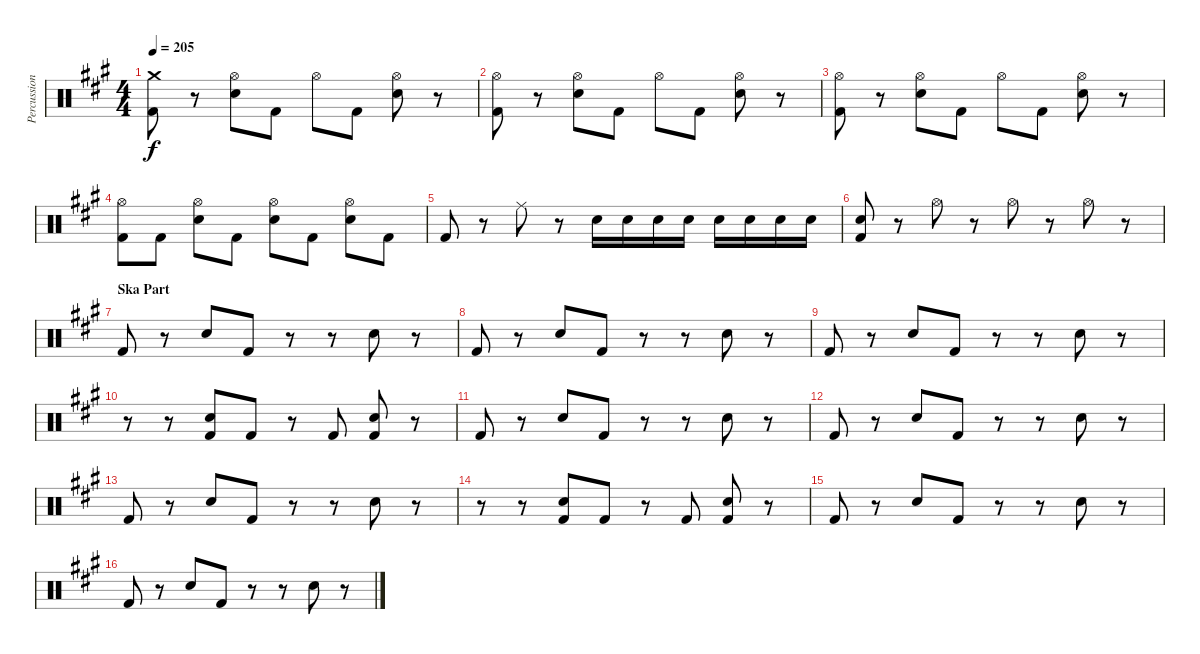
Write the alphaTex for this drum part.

\track ("Percussion" "Percussion") {instrument percussion}
\staff {score}
\articulation defaults
\ts (4 4)
\tempo 205
\clef neutral
\ks a
("Crash medium (hit)" "Kick (hit) 2").8{dy f} r.8 ("Hi-Hat (open)" "Snare (hit) 2").8 "Kick (hit) 2".8 "Hi-Hat (open)".8 "Kick (hit) 2".8 ("Hi-Hat (open)" "Snare (hit) 2").8 r.8 |
("Hi-Hat (open)" "Kick (hit) 2").8 r.8 ("Hi-Hat (open)" "Snare (hit) 2").8 "Kick (hit) 2".8 "Hi-Hat (open)".8 "Kick (hit) 2".8 ("Hi-Hat (open)" "Snare (hit) 2").8 r.8 |
("Hi-Hat (open)" "Kick (hit) 2").8 r.8 ("Hi-Hat (open)" "Snare (hit) 2").8 "Kick (hit) 2".8 "Hi-Hat (open)".8 "Kick (hit) 2".8 ("Hi-Hat (open)" "Snare (hit) 2").8 r.8 |
("Hi-Hat (open)" "Kick (hit) 2").8 "Kick (hit) 2".8 ("Hi-Hat (open)" "Snare (hit) 2").8 "Kick (hit) 2".8 ("Hi-Hat (open)" "Snare (hit) 2").8 "Kick (hit) 2".8 ("Hi-Hat (open)" "Snare (hit) 2").8 "Kick (hit) 2".8 |
"Kick (hit) 2".8 r.8 "Ride (middle)".8 r.8 "Snare (hit) 2".16 "Snare (hit) 2".16 "Snare (hit) 2".16 "Snare (hit) 2".16 "Snare (hit) 2".16 "Snare (hit) 2".16 "Snare (hit) 2".16 "Snare (hit) 2".16 |
("Snare (hit) 2" "Kick (hit) 2").8 r.8 "Hi-Hat (open)".8 r.8 "Hi-Hat (open)".8 r.8 "Hi-Hat (open)".8 r.8 |
\section ("" "Ska Part")
"Kick (hit) 2".8 r.8 "Snare (hit) 2".8 "Kick (hit) 2".8 r.8 r.8 "Snare (hit) 2".8 r.8 |
"Kick (hit) 2".8 r.8 "Snare (hit) 2".8 "Kick (hit) 2".8 r.8 r.8 "Snare (hit) 2".8 r.8 |
"Kick (hit) 2".8 r.8 "Snare (hit) 2".8 "Kick (hit) 2".8 r.8 r.8 "Snare (hit) 2".8 r.8 |
r.8 r.8 ("Snare (hit) 2" "Kick (hit) 2").8 "Kick (hit) 2".8 r.8 "Kick (hit) 2".8 ("Snare (hit) 2" "Kick (hit) 2").8 r.8 |
"Kick (hit) 2".8 r.8 "Snare (hit) 2".8 "Kick (hit) 2".8 r.8 r.8 "Snare (hit) 2".8 r.8 |
"Kick (hit) 2".8 r.8 "Snare (hit) 2".8 "Kick (hit) 2".8 r.8 r.8 "Snare (hit) 2".8 r.8 |
"Kick (hit) 2".8 r.8 "Snare (hit) 2".8 "Kick (hit) 2".8 r.8 r.8 "Snare (hit) 2".8 r.8 |
r.8 r.8 ("Snare (hit) 2" "Kick (hit) 2").8 "Kick (hit) 2".8 r.8 "Kick (hit) 2".8 ("Snare (hit) 2" "Kick (hit) 2").8 r.8 |
"Kick (hit) 2".8 r.8 "Snare (hit) 2".8 "Kick (hit) 2".8 r.8 r.8 "Snare (hit) 2".8 r.8 |
"Kick (hit) 2".8 r.8 "Snare (hit) 2".8 "Kick (hit) 2".8 r.8 r.8 "Snare (hit) 2".8 r.8
